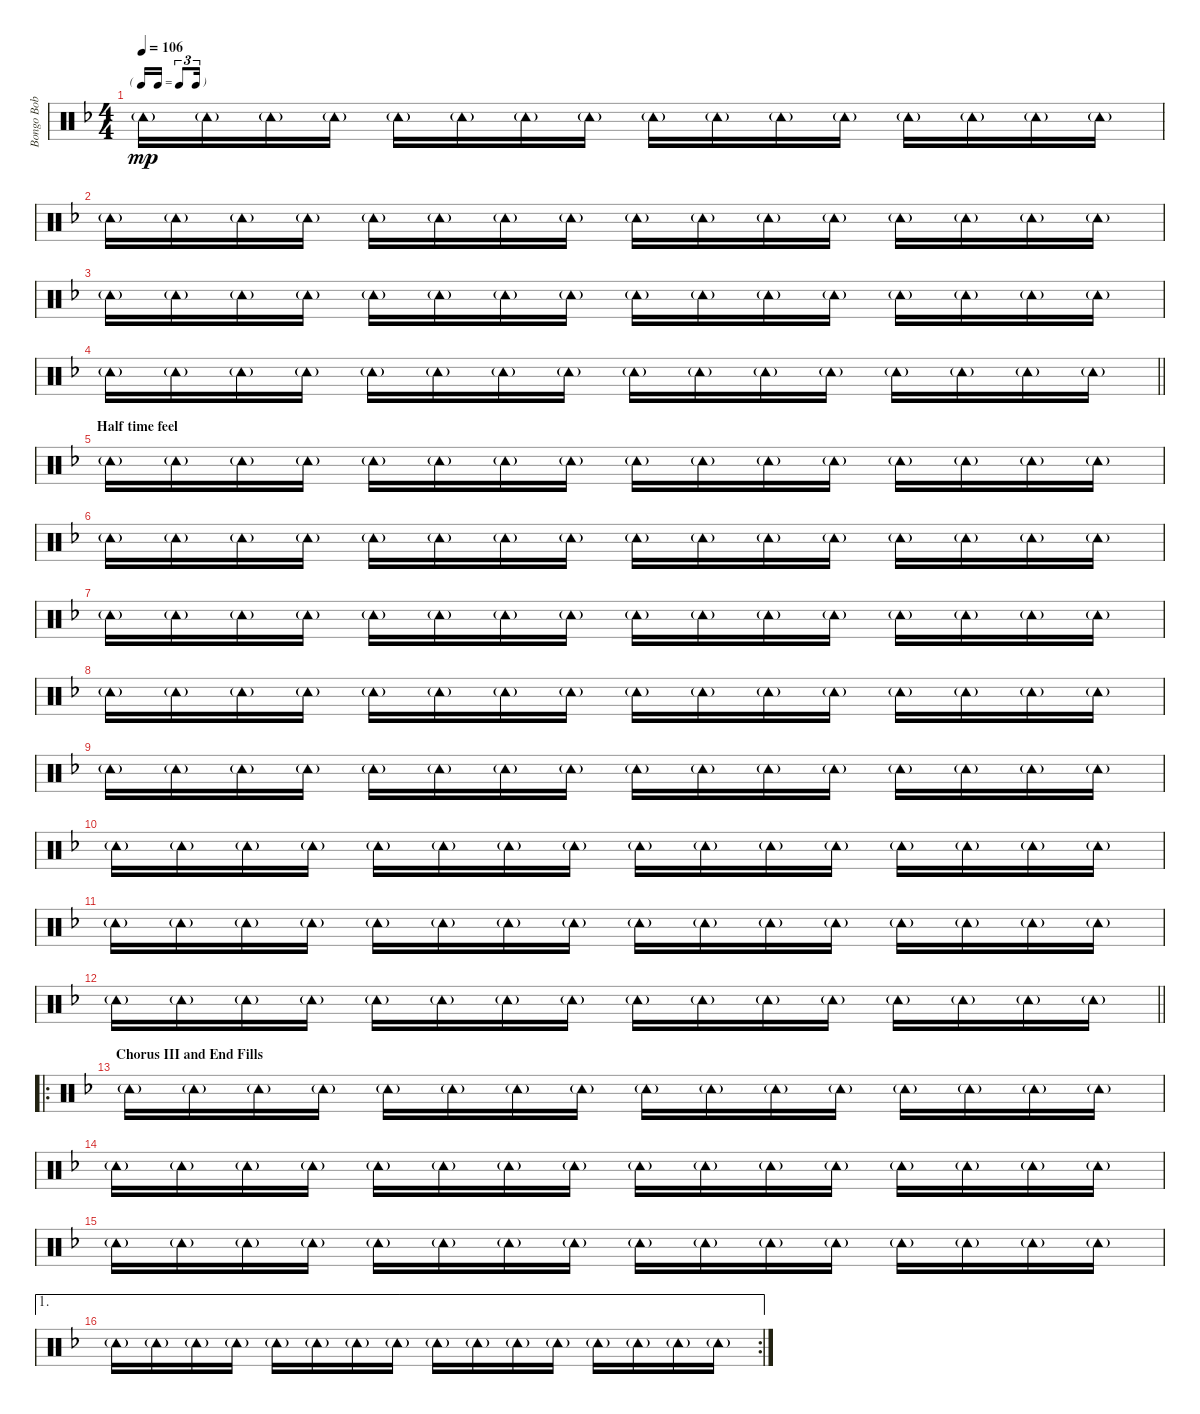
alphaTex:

\track ("Bongo Bob Smith (Tambourine)" "Bongo Bob ") {instrument percussion}
\staff {score}
\articulation defaults
\ts (4 4)
\tf triplet16th
\tempo 106
\clef neutral
\ks f "Tambourine (hit)"{g}.16{dy mp} "Tambourine (hit)"{g}.16 "Tambourine (hit)"{g}.16 "Tambourine (hit)"{g}.16 "Tambourine (hit)"{g}.16 "Tambourine (hit)"{g}.16 "Tambourine (hit)"{g}.16 "Tambourine (hit)"{g}.16 "Tambourine (hit)"{g}.16 "Tambourine (hit)"{g}.16 "Tambourine (hit)"{g}.16 "Tambourine (hit)"{g}.16 "Tambourine (hit)"{g}.16 "Tambourine (hit)"{g}.16 "Tambourine (hit)"{g}.16 "Tambourine (hit)"{g}.16
|
"Tambourine (hit)"{g}.16 "Tambourine (hit)"{g}.16 "Tambourine (hit)"{g}.16 "Tambourine (hit)"{g}.16 "Tambourine (hit)"{g}.16 "Tambourine (hit)"{g}.16 "Tambourine (hit)"{g}.16 "Tambourine (hit)"{g}.16 "Tambourine (hit)"{g}.16 "Tambourine (hit)"{g}.16 "Tambourine (hit)"{g}.16 "Tambourine (hit)"{g}.16 "Tambourine (hit)"{g}.16 "Tambourine (hit)"{g}.16 "Tambourine (hit)"{g}.16 "Tambourine (hit)"{g}.16 |
"Tambourine (hit)"{g}.16 "Tambourine (hit)"{g}.16 "Tambourine (hit)"{g}.16 "Tambourine (hit)"{g}.16 "Tambourine (hit)"{g}.16 "Tambourine (hit)"{g}.16 "Tambourine (hit)"{g}.16 "Tambourine (hit)"{g}.16 "Tambourine (hit)"{g}.16 "Tambourine (hit)"{g}.16 "Tambourine (hit)"{g}.16 "Tambourine (hit)"{g}.16 "Tambourine (hit)"{g}.16 "Tambourine (hit)"{g}.16 "Tambourine (hit)"{g}.16 "Tambourine (hit)"{g}.16 |
\barLineRight lightlight "Tambourine (hit)"{g}.16 "Tambourine (hit)"{g}.16 "Tambourine (hit)"{g}.16 "Tambourine (hit)"{g}.16 "Tambourine (hit)"{g}.16 "Tambourine (hit)"{g}.16 "Tambourine (hit)"{g}.16 "Tambourine (hit)"{g}.16 "Tambourine (hit)"{g}.16 "Tambourine (hit)"{g}.16 "Tambourine (hit)"{g}.16 "Tambourine (hit)"{g}.16 "Tambourine (hit)"{g}.16 "Tambourine (hit)"{g}.16 "Tambourine (hit)"{g}.16 "Tambourine (hit)"{g}.16
|
\section ("" "Half time feel")
"Tambourine (hit)"{g}.16 "Tambourine (hit)"{g}.16 "Tambourine (hit)"{g}.16 "Tambourine (hit)"{g}.16 "Tambourine (hit)"{g}.16 "Tambourine (hit)"{g}.16 "Tambourine (hit)"{g}.16 "Tambourine (hit)"{g}.16 "Tambourine (hit)"{g}.16 "Tambourine (hit)"{g}.16 "Tambourine (hit)"{g}.16 "Tambourine (hit)"{g}.16 "Tambourine (hit)"{g}.16 "Tambourine (hit)"{g}.16 "Tambourine (hit)"{g}.16 "Tambourine (hit)"{g}.16 |
"Tambourine (hit)"{g}.16 "Tambourine (hit)"{g}.16 "Tambourine (hit)"{g}.16 "Tambourine (hit)"{g}.16 "Tambourine (hit)"{g}.16 "Tambourine (hit)"{g}.16 "Tambourine (hit)"{g}.16 "Tambourine (hit)"{g}.16 "Tambourine (hit)"{g}.16 "Tambourine (hit)"{g}.16 "Tambourine (hit)"{g}.16 "Tambourine (hit)"{g}.16 "Tambourine (hit)"{g}.16 "Tambourine (hit)"{g}.16 "Tambourine (hit)"{g}.16 "Tambourine (hit)"{g}.16 |
"Tambourine (hit)"{g}.16 "Tambourine (hit)"{g}.16 "Tambourine (hit)"{g}.16 "Tambourine (hit)"{g}.16 "Tambourine (hit)"{g}.16 "Tambourine (hit)"{g}.16 "Tambourine (hit)"{g}.16 "Tambourine (hit)"{g}.16 "Tambourine (hit)"{g}.16 "Tambourine (hit)"{g}.16 "Tambourine (hit)"{g}.16 "Tambourine (hit)"{g}.16 "Tambourine (hit)"{g}.16 "Tambourine (hit)"{g}.16 "Tambourine (hit)"{g}.16 "Tambourine (hit)"{g}.16 |
"Tambourine (hit)"{g}.16 "Tambourine (hit)"{g}.16 "Tambourine (hit)"{g}.16 "Tambourine (hit)"{g}.16 "Tambourine (hit)"{g}.16 "Tambourine (hit)"{g}.16 "Tambourine (hit)"{g}.16 "Tambourine (hit)"{g}.16 "Tambourine (hit)"{g}.16 "Tambourine (hit)"{g}.16 "Tambourine (hit)"{g}.16 "Tambourine (hit)"{g}.16 "Tambourine (hit)"{g}.16 "Tambourine (hit)"{g}.16 "Tambourine (hit)"{g}.16 "Tambourine (hit)"{g}.16 |
"Tambourine (hit)"{g}.16 "Tambourine (hit)"{g}.16 "Tambourine (hit)"{g}.16 "Tambourine (hit)"{g}.16 "Tambourine (hit)"{g}.16 "Tambourine (hit)"{g}.16 "Tambourine (hit)"{g}.16 "Tambourine (hit)"{g}.16 "Tambourine (hit)"{g}.16 "Tambourine (hit)"{g}.16 "Tambourine (hit)"{g}.16 "Tambourine (hit)"{g}.16 "Tambourine (hit)"{g}.16 "Tambourine (hit)"{g}.16 "Tambourine (hit)"{g}.16 "Tambourine (hit)"{g}.16 |
"Tambourine (hit)"{g}.16 "Tambourine (hit)"{g}.16 "Tambourine (hit)"{g}.16 "Tambourine (hit)"{g}.16 "Tambourine (hit)"{g}.16 "Tambourine (hit)"{g}.16 "Tambourine (hit)"{g}.16 "Tambourine (hit)"{g}.16 "Tambourine (hit)"{g}.16 "Tambourine (hit)"{g}.16 "Tambourine (hit)"{g}.16 "Tambourine (hit)"{g}.16 "Tambourine (hit)"{g}.16 "Tambourine (hit)"{g}.16 "Tambourine (hit)"{g}.16 "Tambourine (hit)"{g}.16 |
"Tambourine (hit)"{g}.16 "Tambourine (hit)"{g}.16 "Tambourine (hit)"{g}.16 "Tambourine (hit)"{g}.16 "Tambourine (hit)"{g}.16 "Tambourine (hit)"{g}.16 "Tambourine (hit)"{g}.16 "Tambourine (hit)"{g}.16 "Tambourine (hit)"{g}.16 "Tambourine (hit)"{g}.16 "Tambourine (hit)"{g}.16 "Tambourine (hit)"{g}.16 "Tambourine (hit)"{g}.16 "Tambourine (hit)"{g}.16 "Tambourine (hit)"{g}.16 "Tambourine (hit)"{g}.16 |
\barLineRight lightlight "Tambourine (hit)"{g}.16 "Tambourine (hit)"{g}.16 "Tambourine (hit)"{g}.16 "Tambourine (hit)"{g}.16 "Tambourine (hit)"{g}.16 "Tambourine (hit)"{g}.16 "Tambourine (hit)"{g}.16 "Tambourine (hit)"{g}.16 "Tambourine (hit)"{g}.16 "Tambourine (hit)"{g}.16 "Tambourine (hit)"{g}.16 "Tambourine (hit)"{g}.16 "Tambourine (hit)"{g}.16 "Tambourine (hit)"{g}.16 "Tambourine (hit)"{g}.16 "Tambourine (hit)"{g}.16
|
\ro
\section ("" "Chorus III and End Fills")
"Tambourine (hit)"{g}.16 "Tambourine (hit)"{g}.16 "Tambourine (hit)"{g}.16 "Tambourine (hit)"{g}.16 "Tambourine (hit)"{g}.16 "Tambourine (hit)"{g}.16 "Tambourine (hit)"{g}.16 "Tambourine (hit)"{g}.16 "Tambourine (hit)"{g}.16 "Tambourine (hit)"{g}.16 "Tambourine (hit)"{g}.16 "Tambourine (hit)"{g}.16 "Tambourine (hit)"{g}.16 "Tambourine (hit)"{g}.16 "Tambourine (hit)"{g}.16 "Tambourine (hit)"{g}.16 |
"Tambourine (hit)"{g}.16 "Tambourine (hit)"{g}.16 "Tambourine (hit)"{g}.16 "Tambourine (hit)"{g}.16 "Tambourine (hit)"{g}.16 "Tambourine (hit)"{g}.16 "Tambourine (hit)"{g}.16 "Tambourine (hit)"{g}.16 "Tambourine (hit)"{g}.16 "Tambourine (hit)"{g}.16 "Tambourine (hit)"{g}.16 "Tambourine (hit)"{g}.16 "Tambourine (hit)"{g}.16 "Tambourine (hit)"{g}.16 "Tambourine (hit)"{g}.16 "Tambourine (hit)"{g}.16 |
"Tambourine (hit)"{g}.16 "Tambourine (hit)"{g}.16 "Tambourine (hit)"{g}.16 "Tambourine (hit)"{g}.16 "Tambourine (hit)"{g}.16 "Tambourine (hit)"{g}.16 "Tambourine (hit)"{g}.16 "Tambourine (hit)"{g}.16 "Tambourine (hit)"{g}.16 "Tambourine (hit)"{g}.16 "Tambourine (hit)"{g}.16 "Tambourine (hit)"{g}.16 "Tambourine (hit)"{g}.16 "Tambourine (hit)"{g}.16 "Tambourine (hit)"{g}.16 "Tambourine (hit)"{g}.16 |
\ae 1
\rc 2 "Tambourine (hit)"{g}.16 "Tambourine (hit)"{g}.16 "Tambourine (hit)"{g}.16 "Tambourine (hit)"{g}.16 "Tambourine (hit)"{g}.16 "Tambourine (hit)"{g}.16 "Tambourine (hit)"{g}.16 "Tambourine (hit)"{g}.16 "Tambourine (hit)"{g}.16 "Tambourine (hit)"{g}.16 "Tambourine (hit)"{g}.16 "Tambourine (hit)"{g}.16 "Tambourine (hit)"{g}.16 "Tambourine (hit)"{g}.16 "Tambourine (hit)"{g}.16 "Tambourine (hit)"{g}.16
